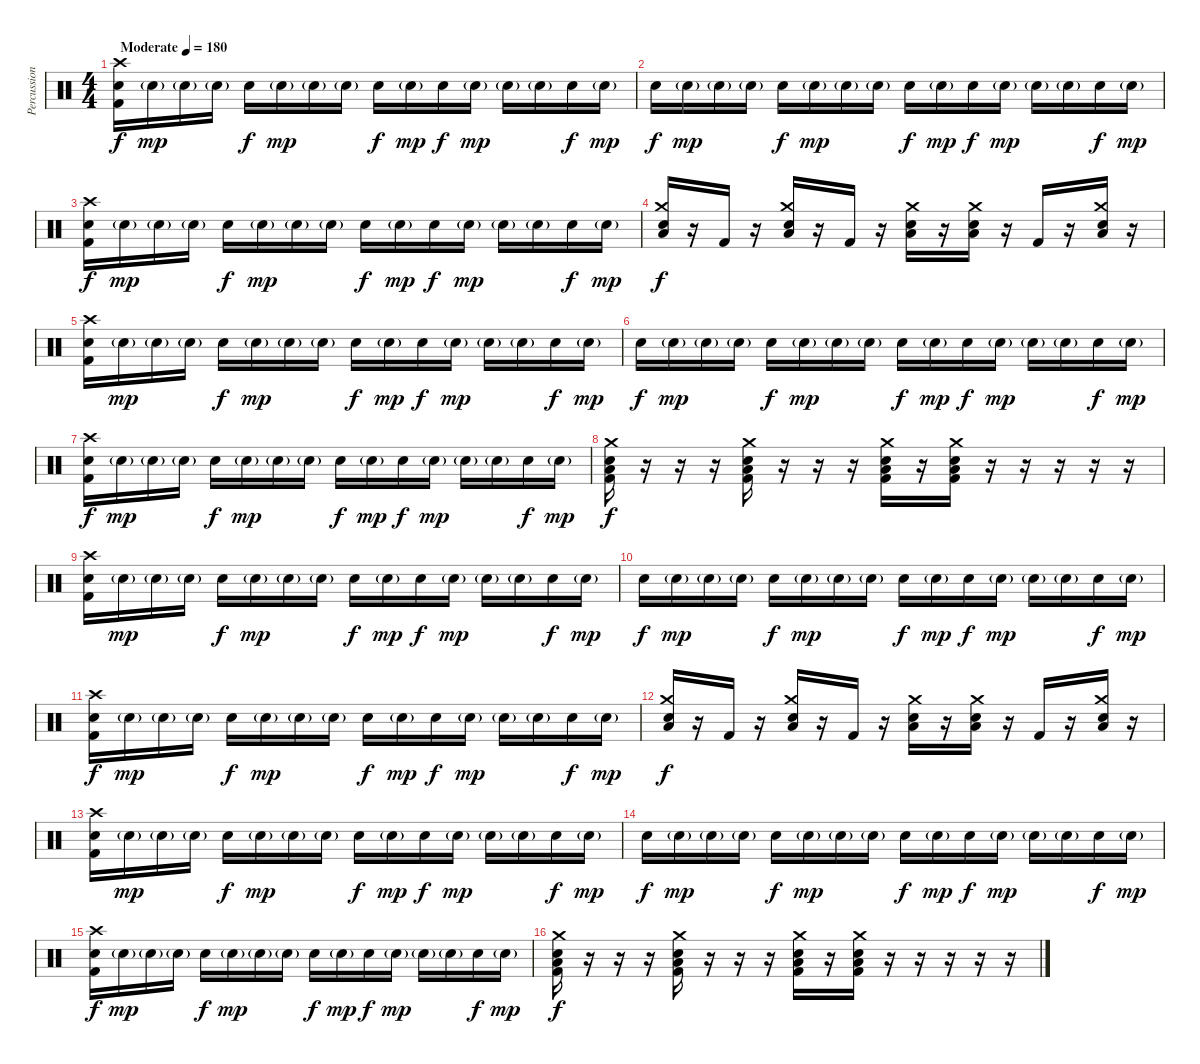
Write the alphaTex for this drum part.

\track ("Percussion" "Percussion") {instrument percussion}
\staff {score}
\articulation defaults
\ts (4 4)
\tempo (180 "Moderate")
\clef neutral
\ks c
("Crash high (hit)" "Electric Snare (hit)" "Kick (hit) 2").16{dy f} "Electric Snare (hit)"{g}.16{dy mp} "Electric Snare (hit)"{g}.16 "Electric Snare (hit)"{g}.16 "Electric Snare (hit)".16{dy f} "Electric Snare (hit)"{g}.16{dy mp} "Electric Snare (hit)"{g}.16 "Electric Snare (hit)"{g}.16 "Electric Snare (hit)".16{dy f} "Electric Snare (hit)"{g}.16{dy mp} "Electric Snare (hit)".16{dy f} "Electric Snare (hit)"{g}.16{dy mp} "Electric Snare (hit)"{g}.16 "Electric Snare (hit)"{g}.16 "Electric Snare (hit)".16{dy f} "Electric Snare (hit)"{g}.16{dy mp} |
"Electric Snare (hit)".16{dy f} "Electric Snare (hit)"{g}.16{dy mp} "Electric Snare (hit)"{g}.16 "Electric Snare (hit)"{g}.16 "Electric Snare (hit)".16{dy f} "Electric Snare (hit)"{g}.16{dy mp} "Electric Snare (hit)"{g}.16 "Electric Snare (hit)"{g}.16 "Electric Snare (hit)".16{dy f} "Electric Snare (hit)"{g}.16{dy mp} "Electric Snare (hit)".16{dy f} "Electric Snare (hit)"{g}.16{dy mp} "Electric Snare (hit)"{g}.16 "Electric Snare (hit)"{g}.16 "Electric Snare (hit)".16{dy f} "Electric Snare (hit)"{g}.16{dy mp} |
("Crash high (hit)" "Electric Snare (hit)" "Kick (hit) 2").16{dy f} "Electric Snare (hit)"{g}.16{dy mp} "Electric Snare (hit)"{g}.16 "Electric Snare (hit)"{g}.16 "Electric Snare (hit)".16{dy f} "Electric Snare (hit)"{g}.16{dy mp} "Electric Snare (hit)"{g}.16 "Electric Snare (hit)"{g}.16 "Electric Snare (hit)".16{dy f} "Electric Snare (hit)"{g}.16{dy mp} "Electric Snare (hit)".16{dy f} "Electric Snare (hit)"{g}.16{dy mp} "Electric Snare (hit)"{g}.16 "Electric Snare (hit)"{g}.16 "Electric Snare (hit)".16{dy f} "Electric Snare (hit)"{g}.16{dy mp} |
("Crash medium (hit)" "Low Floor Tom (hit)" "Electric Snare (hit)").16{dy f} r.16 "Kick (hit) 2".16 r.16 ("Crash medium (hit)" "Low Floor Tom (hit)" "Electric Snare (hit)").16 r.16 "Kick (hit) 2".16 r.16 ("Crash medium (hit)" "Low Floor Tom (hit)" "Electric Snare (hit)").16 r.16 ("Crash medium (hit)" "Low Floor Tom (hit)" "Electric Snare (hit)").16 r.16 "Kick (hit) 2".16 r.16 ("Crash medium (hit)" "Low Floor Tom (hit)" "Electric Snare (hit)").16 r.16 |
("Crash high (hit)" "Electric Snare (hit)" "Kick (hit) 2").16 "Electric Snare (hit)"{g}.16{dy mp} "Electric Snare (hit)"{g}.16 "Electric Snare (hit)"{g}.16 "Electric Snare (hit)".16{dy f} "Electric Snare (hit)"{g}.16{dy mp} "Electric Snare (hit)"{g}.16 "Electric Snare (hit)"{g}.16 "Electric Snare (hit)".16{dy f} "Electric Snare (hit)"{g}.16{dy mp} "Electric Snare (hit)".16{dy f} "Electric Snare (hit)"{g}.16{dy mp} "Electric Snare (hit)"{g}.16 "Electric Snare (hit)"{g}.16 "Electric Snare (hit)".16{dy f} "Electric Snare (hit)"{g}.16{dy mp} |
"Electric Snare (hit)".16{dy f} "Electric Snare (hit)"{g}.16{dy mp} "Electric Snare (hit)"{g}.16 "Electric Snare (hit)"{g}.16 "Electric Snare (hit)".16{dy f} "Electric Snare (hit)"{g}.16{dy mp} "Electric Snare (hit)"{g}.16 "Electric Snare (hit)"{g}.16 "Electric Snare (hit)".16{dy f} "Electric Snare (hit)"{g}.16{dy mp} "Electric Snare (hit)".16{dy f} "Electric Snare (hit)"{g}.16{dy mp} "Electric Snare (hit)"{g}.16 "Electric Snare (hit)"{g}.16 "Electric Snare (hit)".16{dy f} "Electric Snare (hit)"{g}.16{dy mp} |
("Crash high (hit)" "Electric Snare (hit)" "Kick (hit) 2").16{dy f} "Electric Snare (hit)"{g}.16{dy mp} "Electric Snare (hit)"{g}.16 "Electric Snare (hit)"{g}.16 "Electric Snare (hit)".16{dy f} "Electric Snare (hit)"{g}.16{dy mp} "Electric Snare (hit)"{g}.16 "Electric Snare (hit)"{g}.16 "Electric Snare (hit)".16{dy f} "Electric Snare (hit)"{g}.16{dy mp} "Electric Snare (hit)".16{dy f} "Electric Snare (hit)"{g}.16{dy mp} "Electric Snare (hit)"{g}.16 "Electric Snare (hit)"{g}.16 "Electric Snare (hit)".16{dy f} "Electric Snare (hit)"{g}.16{dy mp} |
("Crash medium (hit)" "Low Floor Tom (hit)" "Electric Snare (hit)" "Kick (hit) 2").16{dy f} r.16 r.16 r.16 ("Crash medium (hit)" "Low Floor Tom (hit)" "Electric Snare (hit)" "Kick (hit) 2").16 r.16 r.16 r.16 ("Crash medium (hit)" "Low Floor Tom (hit)" "Electric Snare (hit)" "Kick (hit) 2").16 r.16 ("Crash medium (hit)" "Low Floor Tom (hit)" "Electric Snare (hit)" "Kick (hit) 2").16 r.16 r.16 r.16 r.16 r.16 |
("Crash high (hit)" "Electric Snare (hit)" "Kick (hit) 2").16 "Electric Snare (hit)"{g}.16{dy mp} "Electric Snare (hit)"{g}.16 "Electric Snare (hit)"{g}.16 "Electric Snare (hit)".16{dy f} "Electric Snare (hit)"{g}.16{dy mp} "Electric Snare (hit)"{g}.16 "Electric Snare (hit)"{g}.16 "Electric Snare (hit)".16{dy f} "Electric Snare (hit)"{g}.16{dy mp} "Electric Snare (hit)".16{dy f} "Electric Snare (hit)"{g}.16{dy mp} "Electric Snare (hit)"{g}.16 "Electric Snare (hit)"{g}.16 "Electric Snare (hit)".16{dy f} "Electric Snare (hit)"{g}.16{dy mp} |
"Electric Snare (hit)".16{dy f} "Electric Snare (hit)"{g}.16{dy mp} "Electric Snare (hit)"{g}.16 "Electric Snare (hit)"{g}.16 "Electric Snare (hit)".16{dy f} "Electric Snare (hit)"{g}.16{dy mp} "Electric Snare (hit)"{g}.16 "Electric Snare (hit)"{g}.16 "Electric Snare (hit)".16{dy f} "Electric Snare (hit)"{g}.16{dy mp} "Electric Snare (hit)".16{dy f} "Electric Snare (hit)"{g}.16{dy mp} "Electric Snare (hit)"{g}.16 "Electric Snare (hit)"{g}.16 "Electric Snare (hit)".16{dy f} "Electric Snare (hit)"{g}.16{dy mp} |
("Crash high (hit)" "Electric Snare (hit)" "Kick (hit) 2").16{dy f} "Electric Snare (hit)"{g}.16{dy mp} "Electric Snare (hit)"{g}.16 "Electric Snare (hit)"{g}.16 "Electric Snare (hit)".16{dy f} "Electric Snare (hit)"{g}.16{dy mp} "Electric Snare (hit)"{g}.16 "Electric Snare (hit)"{g}.16 "Electric Snare (hit)".16{dy f} "Electric Snare (hit)"{g}.16{dy mp} "Electric Snare (hit)".16{dy f} "Electric Snare (hit)"{g}.16{dy mp} "Electric Snare (hit)"{g}.16 "Electric Snare (hit)"{g}.16 "Electric Snare (hit)".16{dy f} "Electric Snare (hit)"{g}.16{dy mp} |
("Crash medium (hit)" "Low Floor Tom (hit)" "Electric Snare (hit)").16{dy f} r.16 "Kick (hit) 2".16 r.16 ("Crash medium (hit)" "Low Floor Tom (hit)" "Electric Snare (hit)").16 r.16 "Kick (hit) 2".16 r.16 ("Crash medium (hit)" "Low Floor Tom (hit)" "Electric Snare (hit)").16 r.16 ("Crash medium (hit)" "Low Floor Tom (hit)" "Electric Snare (hit)").16 r.16 "Kick (hit) 2".16 r.16 ("Crash medium (hit)" "Low Floor Tom (hit)" "Electric Snare (hit)").16 r.16 |
("Crash high (hit)" "Electric Snare (hit)" "Kick (hit) 2").16 "Electric Snare (hit)"{g}.16{dy mp} "Electric Snare (hit)"{g}.16 "Electric Snare (hit)"{g}.16 "Electric Snare (hit)".16{dy f} "Electric Snare (hit)"{g}.16{dy mp} "Electric Snare (hit)"{g}.16 "Electric Snare (hit)"{g}.16 "Electric Snare (hit)".16{dy f} "Electric Snare (hit)"{g}.16{dy mp} "Electric Snare (hit)".16{dy f} "Electric Snare (hit)"{g}.16{dy mp} "Electric Snare (hit)"{g}.16 "Electric Snare (hit)"{g}.16 "Electric Snare (hit)".16{dy f} "Electric Snare (hit)"{g}.16{dy mp} |
"Electric Snare (hit)".16{dy f} "Electric Snare (hit)"{g}.16{dy mp} "Electric Snare (hit)"{g}.16 "Electric Snare (hit)"{g}.16 "Electric Snare (hit)".16{dy f} "Electric Snare (hit)"{g}.16{dy mp} "Electric Snare (hit)"{g}.16 "Electric Snare (hit)"{g}.16 "Electric Snare (hit)".16{dy f} "Electric Snare (hit)"{g}.16{dy mp} "Electric Snare (hit)".16{dy f} "Electric Snare (hit)"{g}.16{dy mp} "Electric Snare (hit)"{g}.16 "Electric Snare (hit)"{g}.16 "Electric Snare (hit)".16{dy f} "Electric Snare (hit)"{g}.16{dy mp} |
("Crash high (hit)" "Electric Snare (hit)" "Kick (hit) 2").16{dy f} "Electric Snare (hit)"{g}.16{dy mp} "Electric Snare (hit)"{g}.16 "Electric Snare (hit)"{g}.16 "Electric Snare (hit)".16{dy f} "Electric Snare (hit)"{g}.16{dy mp} "Electric Snare (hit)"{g}.16 "Electric Snare (hit)"{g}.16 "Electric Snare (hit)".16{dy f} "Electric Snare (hit)"{g}.16{dy mp} "Electric Snare (hit)".16{dy f} "Electric Snare (hit)"{g}.16{dy mp} "Electric Snare (hit)"{g}.16 "Electric Snare (hit)"{g}.16 "Electric Snare (hit)".16{dy f} "Electric Snare (hit)"{g}.16{dy mp} |
("Crash medium (hit)" "Low Floor Tom (hit)" "Electric Snare (hit)" "Kick (hit) 2").16{dy f} r.16 r.16 r.16 ("Crash medium (hit)" "Low Floor Tom (hit)" "Electric Snare (hit)" "Kick (hit) 2").16 r.16 r.16 r.16 ("Crash medium (hit)" "Low Floor Tom (hit)" "Electric Snare (hit)" "Kick (hit) 2").16 r.16 ("Crash medium (hit)" "Low Floor Tom (hit)" "Electric Snare (hit)" "Kick (hit) 2").16 r.16 r.16 r.16 r.16 r.16
